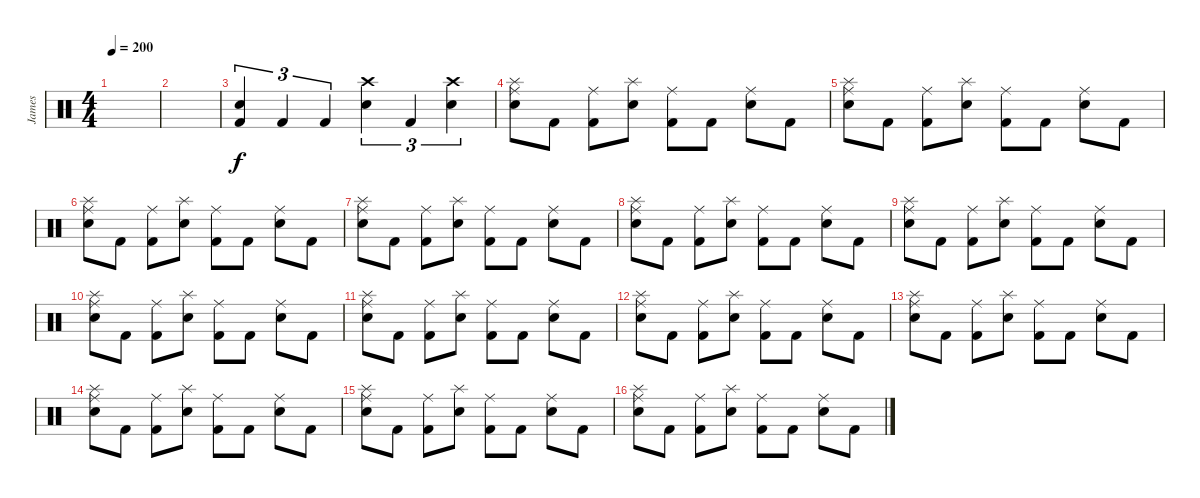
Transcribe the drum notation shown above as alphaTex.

\track ("James" "James") {instrument percussion}
\staff {score}
\articulation defaults
\ts (4 4)
\tempo 200
\clef neutral
\ks c
|
|
("Electric Snare (hit)" "Kick (hit) 2").4{tu (3 2)} "Kick (hit) 2".4{tu (3 2)} "Kick (hit) 2".4{tu (3 2)} ("Crash high (hit)" "Electric Snare (hit)").4{tu (3 2)} "Kick (hit) 2".4{tu (3 2)} ("Crash high (hit)" "Electric Snare (hit)").4{tu (3 2)} |
("Electric Snare (hit)" "Ride (middle)" "Splash (hit)").8 "Kick (hit) 2".8 ("Kick (hit) 2" "Ride (middle)").8 ("Electric Snare (hit)" "Splash (hit)").8 ("Kick (hit) 2" "Ride (middle)").8 "Kick (hit) 2".8 ("Electric Snare (hit)" "Ride (middle)").8 "Kick (hit) 2".8 |
("Electric Snare (hit)" "Ride (middle)" "Splash (hit)").8 "Kick (hit) 2".8 ("Kick (hit) 2" "Ride (middle)").8 ("Electric Snare (hit)" "Splash (hit)").8 ("Kick (hit) 2" "Ride (middle)").8 "Kick (hit) 2".8 ("Electric Snare (hit)" "Ride (middle)").8 "Kick (hit) 2".8 |
("Electric Snare (hit)" "Ride (middle)" "Splash (hit)").8 "Kick (hit) 2".8 ("Kick (hit) 2" "Ride (middle)").8 ("Electric Snare (hit)" "Splash (hit)").8 ("Kick (hit) 2" "Ride (middle)").8 "Kick (hit) 2".8 ("Electric Snare (hit)" "Ride (middle)").8 "Kick (hit) 2".8 |
("Electric Snare (hit)" "Ride (middle)" "Splash (hit)").8 "Kick (hit) 2".8 ("Kick (hit) 2" "Ride (middle)").8 ("Electric Snare (hit)" "Splash (hit)").8 ("Kick (hit) 2" "Ride (middle)").8 "Kick (hit) 2".8 ("Electric Snare (hit)" "Ride (middle)").8 "Kick (hit) 2".8 |
("Electric Snare (hit)" "Ride (middle)" "Splash (hit)").8 "Kick (hit) 2".8 ("Kick (hit) 2" "Ride (middle)").8 ("Electric Snare (hit)" "Splash (hit)").8 ("Kick (hit) 2" "Ride (middle)").8 "Kick (hit) 2".8 ("Electric Snare (hit)" "Ride (middle)").8 "Kick (hit) 2".8 |
("Electric Snare (hit)" "Ride (middle)" "Splash (hit)").8 "Kick (hit) 2".8 ("Kick (hit) 2" "Ride (middle)").8 ("Electric Snare (hit)" "Splash (hit)").8 ("Kick (hit) 2" "Ride (middle)").8 "Kick (hit) 2".8 ("Electric Snare (hit)" "Ride (middle)").8 "Kick (hit) 2".8 |
("Electric Snare (hit)" "Ride (middle)" "Splash (hit)").8 "Kick (hit) 2".8 ("Kick (hit) 2" "Ride (middle)").8 ("Electric Snare (hit)" "Splash (hit)").8 ("Kick (hit) 2" "Ride (middle)").8 "Kick (hit) 2".8 ("Electric Snare (hit)" "Ride (middle)").8 "Kick (hit) 2".8 |
("Electric Snare (hit)" "Ride (middle)" "Splash (hit)").8 "Kick (hit) 2".8 ("Kick (hit) 2" "Ride (middle)").8 ("Electric Snare (hit)" "Splash (hit)").8 ("Kick (hit) 2" "Ride (middle)").8 "Kick (hit) 2".8 ("Electric Snare (hit)" "Ride (middle)").8 "Kick (hit) 2".8 |
("Electric Snare (hit)" "Ride (middle)" "Splash (hit)").8 "Kick (hit) 2".8 ("Kick (hit) 2" "Ride (middle)").8 ("Electric Snare (hit)" "Splash (hit)").8 ("Kick (hit) 2" "Ride (middle)").8 "Kick (hit) 2".8 ("Electric Snare (hit)" "Ride (middle)").8 "Kick (hit) 2".8 |
("Electric Snare (hit)" "Ride (middle)" "Splash (hit)").8 "Kick (hit) 2".8 ("Kick (hit) 2" "Ride (middle)").8 ("Electric Snare (hit)" "Splash (hit)").8 ("Kick (hit) 2" "Ride (middle)").8 "Kick (hit) 2".8 ("Electric Snare (hit)" "Ride (middle)").8 "Kick (hit) 2".8 |
("Electric Snare (hit)" "Ride (middle)" "Splash (hit)").8 "Kick (hit) 2".8 ("Kick (hit) 2" "Ride (middle)").8 ("Electric Snare (hit)" "Splash (hit)").8 ("Kick (hit) 2" "Ride (middle)").8 "Kick (hit) 2".8 ("Electric Snare (hit)" "Ride (middle)").8 "Kick (hit) 2".8 |
("Electric Snare (hit)" "Ride (middle)" "Splash (hit)").8 "Kick (hit) 2".8 ("Kick (hit) 2" "Ride (middle)").8 ("Electric Snare (hit)" "Splash (hit)").8 ("Kick (hit) 2" "Ride (middle)").8 "Kick (hit) 2".8 ("Electric Snare (hit)" "Ride (middle)").8 "Kick (hit) 2".8 |
("Electric Snare (hit)" "Ride (middle)" "Splash (hit)").8 "Kick (hit) 2".8 ("Kick (hit) 2" "Ride (middle)").8 ("Electric Snare (hit)" "Splash (hit)").8 ("Kick (hit) 2" "Ride (middle)").8 "Kick (hit) 2".8 ("Electric Snare (hit)" "Ride (middle)").8 "Kick (hit) 2".8
